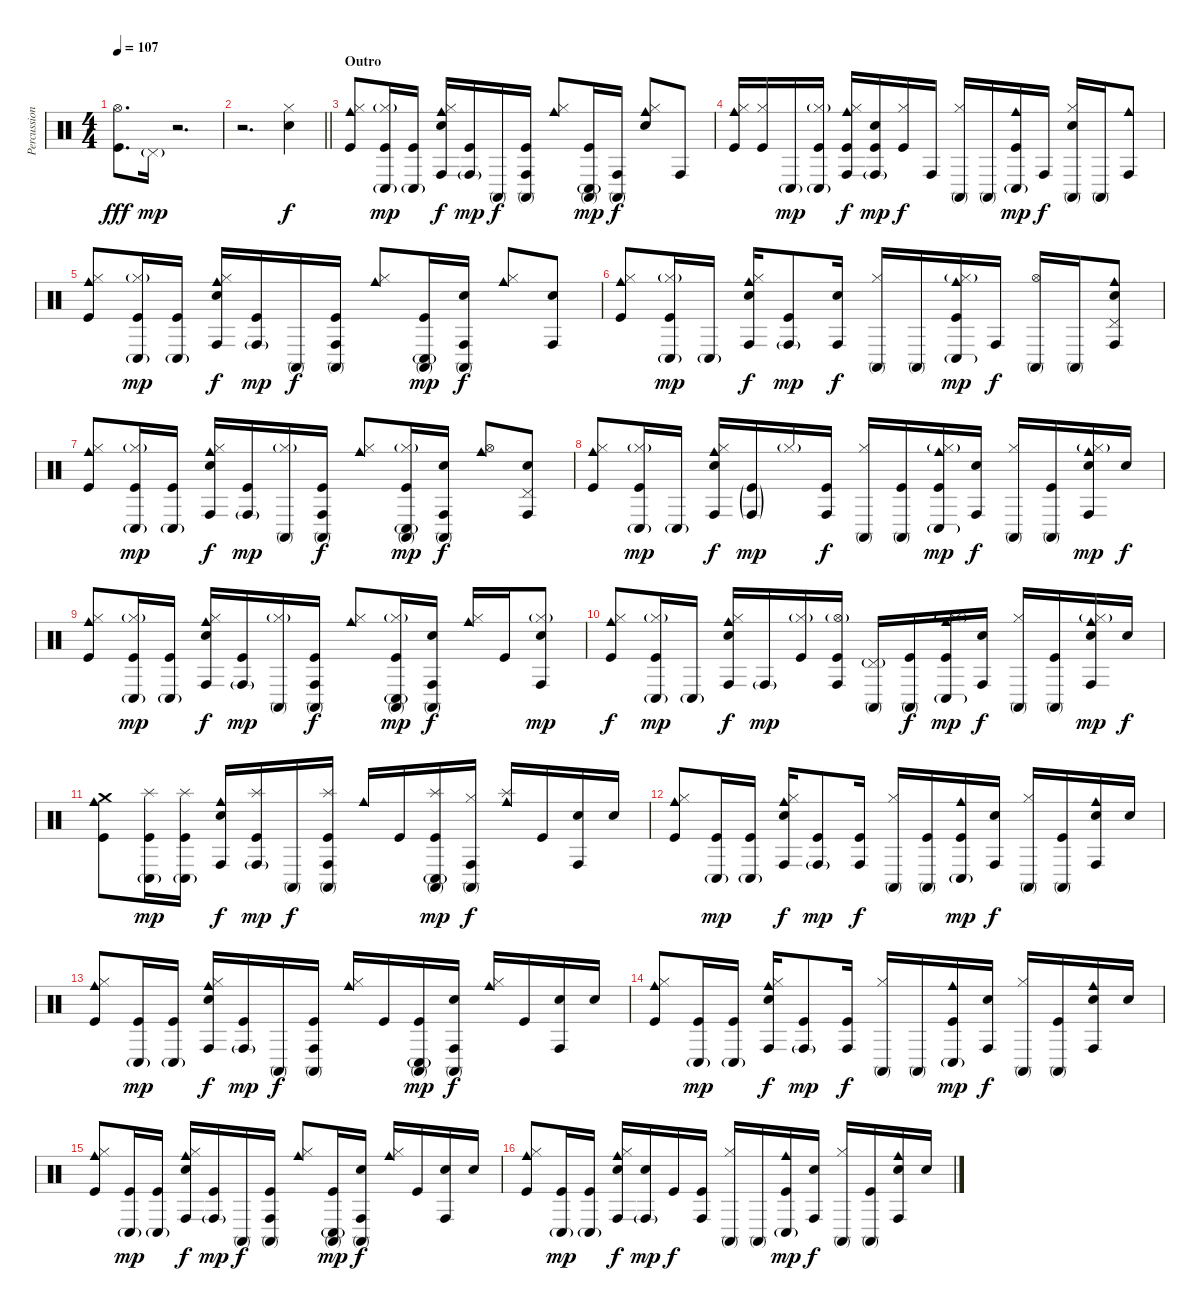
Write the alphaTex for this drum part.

\track ("Percussion" "Percussion") {instrument percussion}
\staff {score}
\articulation defaults
\ts (4 4)
\tempo 107
\clef neutral
\ks c
("Hi-Hat (open)" "Kick (hit)").8{d dy fff} "Pedal Hi-Hat (hit)"{g}.16{dy mp} r.2{d} |
\barLineRight lightlight
r.2{d} ("Hi-Hat (closed)" "Snare (hit) 2").4{dy f volume 16} |
\section ("" "Outro")
("Hi-Hat (closed)" "Cowbell medium (hit)" "Kick (hit)").8 ("Hi-Hat (closed)"{g} "Conga low (hit)"{g} "Kick (hit)").16{dy mp} ("Conga low (hit)"{g} "Kick (hit)").16 ("Hi-Hat (closed)" "Cowbell medium (hit)" "Snare (hit) 2" "Conga high (hit)").16{dy f} ("Conga high (hit)"{g} "Kick (hit)").16{dy mp} "Conga high (mute)".16{dy f} ("Conga high (mute)" "Conga high (hit)" "Kick (hit)").16 ("Hi-Hat (closed)" "Cowbell medium (hit)").8 ("Conga high (mute)" "Conga low (hit)"{g} "Kick (hit)").16{dy mp} ("Conga high (mute)" "Conga high (hit)").16{dy f} ("Hi-Hat (closed)" "Cowbell medium (hit)" "Snare (hit) 2").8 "Conga high (hit)".8 |
("Hi-Hat (closed)" "Cowbell medium (hit)" "Kick (hit)").16 ("Hi-Hat (closed)" "Kick (hit)").16 "Conga low (hit)"{g}.16{dy mp} ("Hi-Hat (closed)"{g} "Conga low (hit)"{g} "Kick (hit)").16 ("Hi-Hat (closed)" "Cowbell medium (hit)" "Conga high (hit)" "Kick (hit)").16{dy f} ("Snare (hit) 2" "Conga high (hit)"{g} "Kick (hit)").16{dy mp} ("Hi-Hat (closed)" "Kick (hit)").16{dy f} "Conga high (hit)".16 ("Hi-Hat (closed)" "Conga high (mute)").16 "Conga high (mute)".16 ("Cowbell medium (hit)" "Conga low (hit)"{g} "Kick (hit)").16{dy mp} "Conga high (hit)".16{dy f} ("Hi-Hat (closed)" "Conga high (mute)" "Snare (hit) 2").16 "Conga high (mute)".16 ("Cowbell medium (hit)" "Conga high (hit)").8 |
("Hi-Hat (closed)" "Cowbell medium (hit)" "Kick (hit)").8 ("Hi-Hat (closed)"{g} "Conga low (hit)"{g} "Kick (hit)").16{dy mp} ("Conga low (hit)"{g} "Kick (hit)").16 ("Hi-Hat (closed)" "Cowbell medium (hit)" "Snare (hit) 2" "Conga high (hit)").16{dy f} ("Conga high (hit)"{g} "Kick (hit)").16{dy mp} "Conga high (mute)".16{dy f} ("Conga high (mute)" "Conga high (hit)" "Kick (hit)").16 ("Hi-Hat (closed)" "Cowbell medium (hit)").8 ("Conga high (mute)" "Conga low (hit)"{g} "Kick (hit)").16{dy mp} ("Conga high (mute)" "Snare (hit) 2" "Conga high (hit)").16{dy f} ("Hi-Hat (closed)" "Cowbell medium (hit)").8 ("Snare (hit) 2" "Conga high (hit)").8 |
("Hi-Hat (closed)" "Cowbell medium (hit)" "Kick (hit)").8 ("Hi-Hat (closed)"{g} "Conga low (hit)"{g} "Kick (hit)").16{dy mp} "Conga low (hit)"{g}.16 ("Hi-Hat (closed)" "Cowbell medium (hit)" "Snare (hit) 2" "Conga high (hit)").16{dy f} ("Conga high (hit)"{g} "Kick (hit)").8{dy mp} ("Snare (hit) 2" "Conga high (hit)").16{dy f} ("Hi-Hat (closed)" "Conga high (mute)").16 "Conga high (mute)".16 ("Hi-Hat (closed)"{g} "Cowbell medium (hit)" "Conga low (hit)"{g} "Kick (hit)").16{dy mp} "Conga high (hit)".16{dy f} ("Hi-Hat (open)" "Conga high (mute)").16 "Conga high (mute)".16 ("Pedal Hi-Hat (hit)" "Cowbell medium (hit)" "Snare (hit) 2" "Conga high (hit)").8 |
("Hi-Hat (closed)" "Cowbell medium (hit)" "Kick (hit)").8 ("Hi-Hat (closed)"{g} "Conga low (hit)"{g} "Kick (hit)").16{dy mp} ("Conga low (hit)"{g} "Kick (hit)").16 ("Hi-Hat (closed)" "Cowbell medium (hit)" "Snare (hit) 2" "Conga high (hit)").16{dy f} ("Conga high (hit)"{g} "Kick (hit)").16{dy mp} ("Hi-Hat (closed)"{g} "Conga high (mute)").16 ("Conga high (mute)" "Conga high (hit)" "Kick (hit)").16{dy f} ("Hi-Hat (closed)" "Cowbell medium (hit)").8 ("Hi-Hat (closed)"{g} "Conga high (mute)" "Conga low (hit)"{g} "Kick (hit)").16{dy mp} ("Conga high (mute)" "Snare (hit) 2" "Conga high (hit)").16{dy f} ("Hi-Hat (open)" "Cowbell medium (hit)").8 ("Pedal Hi-Hat (hit)" "Snare (hit) 2" "Conga high (hit)").8 |
("Hi-Hat (closed)" "Cowbell medium (hit)" "Kick (hit)").8 ("Hi-Hat (closed)"{g} "Conga low (hit)"{g} "Kick (hit)").16{dy mp} "Conga low (hit)"{g}.16 ("Hi-Hat (closed)" "Cowbell medium (hit)" "Snare (hit) 2" "Conga high (hit)").16{dy f} ("Conga high (hit)"{g} "Kick (hit)"{g}).16{dy mp} "Hi-Hat (closed)"{g}.16 ("Conga high (hit)" "Kick (hit)").16{dy f} ("Hi-Hat (closed)" "Conga high (mute)").16 ("Conga high (mute)" "Kick (hit)").16 ("Hi-Hat (closed)"{g} "Cowbell medium (hit)" "Conga low (hit)"{g} "Kick (hit)").16{dy mp} ("Snare (hit) 2" "Conga high (hit)").16{dy f} ("Hi-Hat (closed)" "Conga high (mute)").16 ("Conga high (mute)" "Kick (hit)").16 ("Hi-Hat (closed)"{g} "Cowbell medium (hit)" "Snare (hit) 2" "Conga high (hit)").16{dy mp} "Snare (hit) 2".16{dy f} |
("Hi-Hat (closed)" "Cowbell medium (hit)" "Kick (hit)").8 ("Hi-Hat (closed)"{g} "Conga low (hit)"{g} "Kick (hit)").16{dy mp} ("Conga low (hit)"{g} "Kick (hit)").16 ("Hi-Hat (closed)" "Cowbell medium (hit)" "Snare (hit) 2" "Conga high (hit)").16{dy f} ("Conga high (hit)"{g} "Kick (hit)").16{dy mp} ("Hi-Hat (closed)"{g} "Conga high (mute)").16 ("Conga high (mute)" "Conga high (hit)" "Kick (hit)").16{dy f} ("Hi-Hat (closed)" "Cowbell medium (hit)").8 ("Hi-Hat (closed)"{g} "Conga high (mute)" "Conga low (hit)"{g} "Kick (hit)").16{dy mp} ("Conga high (mute)" "Snare (hit) 2" "Conga high (hit)").16{dy f} ("Hi-Hat (closed)" "Cowbell medium (hit)").16 "Kick (hit)".16 ("Hi-Hat (closed)"{g} "Snare (hit) 2" "Conga high (hit)").8{dy mp} |
("Hi-Hat (closed)" "Cowbell medium (hit)" "Kick (hit)").8{dy f} ("Hi-Hat (closed)"{g} "Conga low (hit)"{g} "Kick (hit)").16{dy mp} "Conga low (hit)"{g}.16 ("Hi-Hat (closed)" "Cowbell medium (hit)" "Snare (hit) 2" "Conga high (hit)").16{dy f} "Conga high (hit)"{g}.16{dy mp} ("Hi-Hat (closed)"{g} "Kick (hit)").16 ("Hi-Hat (open)"{g} "Conga high (hit)" "Kick (hit)").16 ("Pedal Hi-Hat (hit)"{g} "Conga high (mute)").16 ("Conga high (mute)" "Kick (hit)").16{dy f} ("Hi-Hat (closed)"{g} "Cowbell medium (hit)" "Conga low (hit)"{g} "Kick (hit)").16{dy mp} ("Snare (hit) 2" "Conga high (hit)").16{dy f} ("Hi-Hat (closed)" "Conga high (mute)").16 ("Conga high (mute)" "Kick (hit)").16 ("Hi-Hat (closed)"{g} "Cowbell medium (hit)" "Snare (hit) 2" "Conga high (hit)").16{dy mp} "Snare (hit) 2".16{dy f} |
("Crash medium (hit)" "Cowbell medium (hit)" "Kick (hit)").8 ("Splash (hit)" "Conga low (hit)"{g} "Kick (hit)").16{dy mp} ("Splash (hit)" "Conga low (hit)"{g} "Kick (hit)").16 ("Cowbell medium (hit)" "Snare (hit) 2" "Conga high (hit)").16{dy f} ("Splash (hit)" "Conga high (hit)"{g} "Kick (hit)").16{dy mp} "Conga high (mute)".16{dy f} ("Splash (hit)" "Conga high (mute)" "Conga high (hit)" "Kick (hit)").16 "Cowbell medium (hit)".16 "Kick (hit)".16 ("Splash (hit)" "Conga high (mute)" "Conga low (hit)"{g} "Kick (hit)").16{dy mp} ("Hi-Hat (closed)" "Conga high (mute)" "Conga high (hit)").16{dy f} ("Splash (hit)" "Cowbell medium (hit)").16 "Kick (hit)".16 ("Snare (hit) 2" "Conga high (hit)").16 "Snare (hit) 2".16 |
("Hi-Hat (closed)" "Cowbell medium (hit)" "Kick (hit)").8 ("Conga low (hit)"{g} "Kick (hit)").16{dy mp} ("Conga low (hit)"{g} "Kick (hit)").16 ("Hi-Hat (closed)" "Cowbell medium (hit)" "Snare (hit) 2" "Conga high (hit)").16{dy f} ("Conga high (hit)"{g} "Kick (hit)").8{dy mp} ("Conga high (hit)" "Kick (hit)").16{dy f} ("Hi-Hat (closed)" "Conga high (mute)").16 ("Conga high (mute)" "Kick (hit)").16 ("Cowbell medium (hit)" "Conga low (hit)"{g} "Kick (hit)").16{dy mp} ("Snare (hit) 2" "Conga high (hit)").16{dy f} ("Hi-Hat (closed)" "Conga high (mute)").16 ("Conga high (mute)" "Kick (hit)").16 ("Cowbell medium (hit)" "Snare (hit) 2" "Conga high (hit)").16 "Snare (hit) 2".16 |
("Hi-Hat (closed)" "Cowbell medium (hit)" "Kick (hit)").8 ("Conga low (hit)"{g} "Kick (hit)").16{dy mp} ("Conga low (hit)"{g} "Kick (hit)").16 ("Hi-Hat (closed)" "Cowbell medium (hit)" "Snare (hit) 2" "Conga high (hit)").16{dy f} ("Conga high (hit)"{g} "Kick (hit)").16{dy mp} "Conga high (mute)".16{dy f} ("Conga high (mute)" "Conga high (hit)" "Kick (hit)").16 ("Hi-Hat (closed)" "Cowbell medium (hit)").16 "Kick (hit)".16 ("Conga high (mute)" "Conga low (hit)"{g} "Kick (hit)").16{dy mp} ("Conga high (mute)" "Snare (hit) 2" "Conga high (hit)").16{dy f} ("Hi-Hat (closed)" "Cowbell medium (hit)").16 "Kick (hit)".16 ("Snare (hit) 2" "Conga high (hit)").16 "Snare (hit) 2".16 |
("Hi-Hat (closed)" "Cowbell medium (hit)" "Kick (hit)").8 ("Conga low (hit)"{g} "Kick (hit)").16{dy mp} ("Conga low (hit)"{g} "Kick (hit)").16 ("Hi-Hat (closed)" "Cowbell medium (hit)" "Snare (hit) 2" "Conga high (hit)").16{dy f} ("Conga high (hit)"{g} "Kick (hit)").8{dy mp} ("Conga high (hit)" "Kick (hit)").16{dy f} ("Hi-Hat (closed)" "Conga high (mute)").16 "Conga high (mute)".16 ("Cowbell medium (hit)" "Conga low (hit)"{g} "Kick (hit)").16{dy mp} ("Snare (hit) 2" "Conga high (hit)").16{dy f} ("Hi-Hat (closed)" "Conga high (mute)").16 ("Conga high (mute)" "Kick (hit)").16 ("Cowbell medium (hit)" "Snare (hit) 2" "Conga high (hit)").16 "Snare (hit) 2".16 |
("Hi-Hat (closed)" "Cowbell medium (hit)" "Kick (hit)").8{volume 8} ("Conga low (hit)"{g} "Kick (hit)").16{dy mp} ("Conga low (hit)"{g} "Kick (hit)").16 ("Hi-Hat (closed)" "Cowbell medium (hit)" "Snare (hit) 2" "Conga high (hit)").16{dy f} ("Conga high (hit)"{g} "Kick (hit)").16{dy mp} "Conga high (mute)".16{dy f} ("Conga high (mute)" "Conga high (hit)" "Kick (hit)").16 ("Hi-Hat (closed)" "Cowbell medium (hit)").8 ("Conga high (mute)" "Conga low (hit)"{g} "Kick (hit)").16{dy mp} ("Conga high (mute)" "Snare (hit) 2" "Conga high (hit)").16{dy f} ("Hi-Hat (closed)" "Cowbell medium (hit)").16 "Kick (hit)".16 ("Snare (hit) 2" "Conga high (hit)").16 "Snare (hit) 2".16 |
("Hi-Hat (closed)" "Cowbell medium (hit)" "Kick (hit)").8 ("Conga low (hit)"{g} "Kick (hit)").16{dy mp} ("Conga low (hit)"{g} "Kick (hit)").16 ("Hi-Hat (closed)" "Cowbell medium (hit)" "Snare (hit) 2" "Conga high (hit)").16{dy f} ("Snare (hit) 2" "Conga high (hit)"{g}).16{dy mp} "Kick (hit)".16{dy f} ("Conga high (hit)" "Kick (hit)").16 ("Hi-Hat (closed)" "Conga high (mute)").16 "Conga high (mute)".16 ("Cowbell medium (hit)" "Conga low (hit)"{g} "Kick (hit)").16{dy mp} ("Snare (hit) 2" "Conga high (hit)").16{dy f} ("Hi-Hat (closed)" "Conga high (mute)").16 ("Conga high (mute)" "Kick (hit)").16 ("Cowbell medium (hit)" "Snare (hit) 2" "Conga high (hit)").16 "Snare (hit) 2".16
